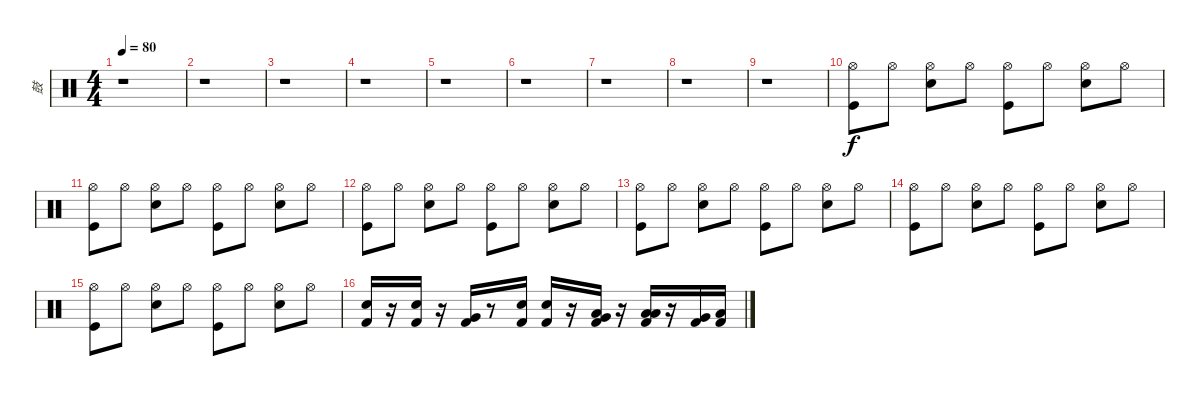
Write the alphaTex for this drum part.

\track ("鼓" "鼓") {instrument percussion}
\staff {score}
\articulation defaults
\ts (4 4)
\tempo 80
\clef neutral
\ks c
r.1{dy f} |
r.1 |
r.1 |
r.1 |
r.1 |
r.1 |
r.1 |
r.1 |
r.1 |
("Hi-Hat (open)" "Kick (hit)").8 "Hi-Hat (open)".8 ("Snare (hit) 2" "Hi-Hat (open)").8 "Hi-Hat (open)".8 ("Hi-Hat (open)" "Kick (hit)").8 "Hi-Hat (open)".8 ("Snare (hit) 2" "Hi-Hat (open)").8 "Hi-Hat (open)".8 |
("Hi-Hat (open)" "Kick (hit)").8 "Hi-Hat (open)".8 ("Snare (hit) 2" "Hi-Hat (open)").8 "Hi-Hat (open)".8 ("Hi-Hat (open)" "Kick (hit)").8 "Hi-Hat (open)".8 ("Snare (hit) 2" "Hi-Hat (open)").8 "Hi-Hat (open)".8 |
("Hi-Hat (open)" "Kick (hit)").8 "Hi-Hat (open)".8 ("Snare (hit) 2" "Hi-Hat (open)").8 "Hi-Hat (open)".8 ("Hi-Hat (open)" "Kick (hit)").8 "Hi-Hat (open)".8 ("Snare (hit) 2" "Hi-Hat (open)").8 "Hi-Hat (open)".8 |
("Hi-Hat (open)" "Kick (hit)").8 "Hi-Hat (open)".8 ("Snare (hit) 2" "Hi-Hat (open)").8 "Hi-Hat (open)".8 ("Hi-Hat (open)" "Kick (hit)").8 "Hi-Hat (open)".8 ("Snare (hit) 2" "Hi-Hat (open)").8 "Hi-Hat (open)".8 |
("Hi-Hat (open)" "Kick (hit)").8 "Hi-Hat (open)".8 ("Snare (hit) 2" "Hi-Hat (open)").8 "Hi-Hat (open)".8 ("Hi-Hat (open)" "Kick (hit)").8 "Hi-Hat (open)".8 ("Snare (hit) 2" "Hi-Hat (open)").8 "Hi-Hat (open)".8 |
("Hi-Hat (open)" "Kick (hit)").8 "Hi-Hat (open)".8 ("Snare (hit) 2" "Hi-Hat (open)").8 "Hi-Hat (open)".8 ("Hi-Hat (open)" "Kick (hit)").8 "Hi-Hat (open)".8 ("Snare (hit) 2" "Hi-Hat (open)").8 "Hi-Hat (open)".8 |
("Snare (hit) 2" "Kick (hit) 2").16 r.16 ("Snare (hit) 2" "Kick (hit) 2").16 r.16 ("Very Low Tom (hit)" "Kick (hit) 2").16 r.8 ("Snare (hit) 2" "Kick (hit) 2").16 ("Snare (hit) 2" "Kick (hit) 2").16 r.16 ("Very Low Tom (hit)" "Low Tom (hit)" "Kick (hit) 2").16 r.16 ("Low Floor Tom (hit)" "Low Tom (hit)" "Kick (hit) 2").16 r.16 ("Very Low Tom (hit)" "Kick (hit) 2").16 ("Low Floor Tom (hit)" "Kick (hit) 2").16
